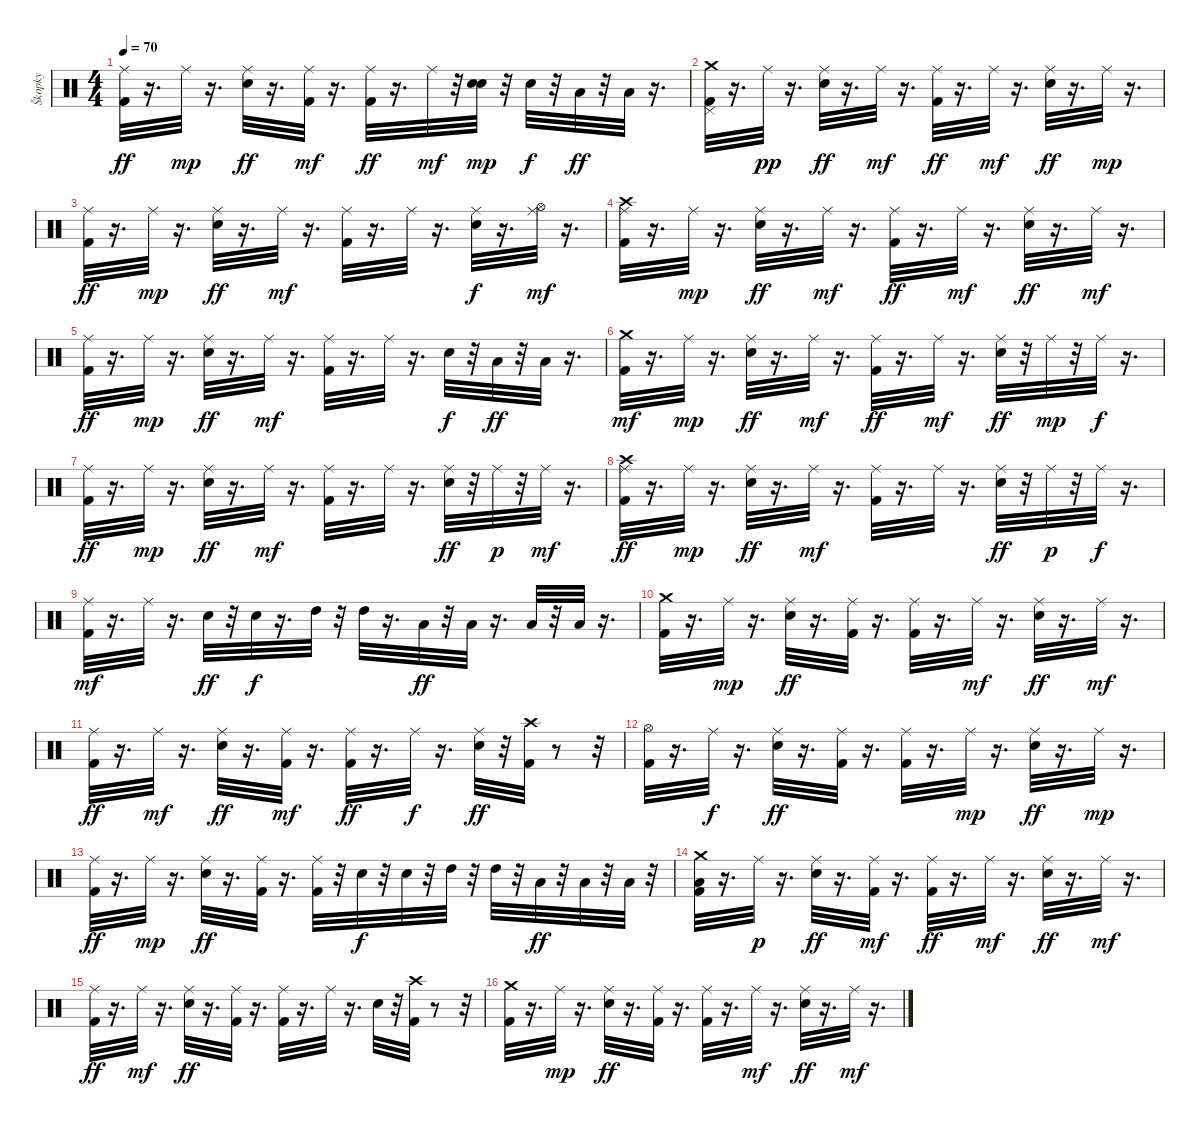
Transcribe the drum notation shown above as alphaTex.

\track ("Škopky" "Škopky") {instrument percussion}
\staff {score}
\articulation defaults
\ts (4 4)
\tempo 70
\clef neutral
\ks c
("Kick (hit) 2" "Ride (middle)").32{dy ff} r.16{d} "Ride (middle)".32{dy mp} r.16{d} ("Snare (hit) 2" "Ride (middle)").32{dy ff} r.16{d} ("Kick (hit) 2" "Ride (middle)").32{dy mf} r.16{d} ("Kick (hit) 2" "Ride (middle)").32{dy ff} r.16{d} "Ride (middle)".32{dy mf} r.32 ("Snare (hit) 2" "Snare (hit) 2").32{dy mp} r.32 "Snare (hit) 2".32{dy f} r.32 "Low Tom (hit)".32{dy ff} r.32 "Low Floor Tom (hit)".32 r.16{d} |
("Pedal Hi-Hat (hit)" "Kick (hit) 2" "Crash medium (hit)").32 r.16{d} "Ride (middle)".32{dy pp} r.16{d} ("Ride (middle)" "Snare (hit) 2").32{dy ff} r.16{d} "Ride (middle)".32{dy mf} r.16{d} ("Kick (hit) 2" "Ride (middle)").32{dy ff} r.16{d} "Ride (middle)".32{dy mf} r.16{d} ("Snare (hit) 2" "Ride (middle)").32{dy ff} r.16{d} "Ride (middle)".32{dy mp} r.16{d} |
("Kick (hit) 2" "Ride (middle)").32{dy ff} r.16{d} "Ride (middle)".32{dy mp} r.16{d} ("Snare (hit) 2" "Ride (middle)").32{dy ff} r.16{d} "Ride (middle)".32{dy mf} r.16{d} ("Kick (hit) 2" "Ride (middle)").32 r.16{d} "Ride (middle)".32 r.16{d} ("Ride (middle)" "Snare (hit) 2").32{dy f} r.16{d} ("Hi-Hat (open)" "Ride (middle)").32{dy mf} r.16{d} |
("Kick (hit) 2" "Crash high (hit)" "Ride (middle)").32 r.16{d} "Ride (middle)".32{dy mp} r.16{d} ("Snare (hit) 2" "Ride (middle)").32{dy ff} r.16{d} "Ride (middle)".32{dy mf} r.16{d} ("Kick (hit) 2" "Ride (middle)").32{dy ff} r.16{d} "Ride (middle)".32{dy mf} r.16{d} ("Snare (hit) 2" "Ride (middle)").32{dy ff} r.16{d} "Ride (middle)".32{dy mf} r.16{d} |
("Kick (hit) 2" "Ride (middle)").32{dy ff} r.16{d} "Ride (middle)".32{dy mp} r.16{d} ("Snare (hit) 2" "Ride (middle)").32{dy ff} r.16{d} "Ride (middle)".32{dy mf} r.16{d} ("Kick (hit) 2" "Ride (middle)").32 r.16{d} "Ride (middle)".32 r.16{d} "Snare (hit) 2".32{dy f} r.32 "Low Tom (hit)".32{dy ff} r.32 "Low Floor Tom (hit)".32 r.16{d} |
("Kick (hit) 2" "Crash medium (hit)").32{dy mf} r.16{d} "Ride (middle)".32{dy mp} r.16{d} ("Snare (hit) 2" "Ride (middle)").32{dy ff} r.16{d} "Ride (middle)".32{dy mf} r.16{d} ("Kick (hit) 2" "Ride (middle)").32{dy ff} r.16{d} "Ride (middle)".32{dy mf} r.16{d} ("Snare (hit) 2" "Ride (middle)").32{dy ff} r.32 "Ride (middle)".32{dy mp} r.32 "Ride (middle)".32{dy f} r.16{d} |
("Kick (hit) 2" "Ride (middle)").32{dy ff} r.16{d} "Ride (middle)".32{dy mp} r.16{d} ("Snare (hit) 2" "Ride (middle)").32{dy ff} r.16{d} "Ride (middle)".32{dy mf} r.16{d} ("Kick (hit) 2" "Ride (middle)").32 r.16{d} "Ride (middle)".32 r.16{d} ("Snare (hit) 2" "Ride (middle)").32{dy ff} r.32 "Ride (middle)".32{dy p} r.32 "Ride (middle)".32{dy mf} r.16{d} |
("Kick (hit) 2" "Ride (middle)" "Crash high (hit)").32{dy ff} r.16{d} "Ride (middle)".32{dy mp} r.16{d} ("Snare (hit) 2" "Ride (middle)").32{dy ff} r.16{d} "Ride (middle)".32{dy mf} r.16{d} ("Kick (hit) 2" "Ride (middle)").32 r.16{d} "Ride (middle)".32 r.16{d} ("Snare (hit) 2" "Ride (middle)").32{dy ff} r.32 "Ride (middle)".32{dy p} r.32 "Ride (middle)".32{dy f} r.16{d} |
("Kick (hit) 2" "Ride (middle)").32{dy mf} r.16{d} "Ride (middle)".32 r.16{d} "Snare (hit) 2".32{dy ff} r.32 "Snare (hit) 2".32{dy f} r.16{d} "High Tom (hit)".32 r.32 "High Tom (hit)".32 r.16{d} "Low Tom (hit)".32{dy ff} r.32 "Low Tom (hit)".32 r.16{d} "Low Floor Tom (hit)".32 r.32 "Low Floor Tom (hit)".32 r.16{d} |
("Kick (hit) 2" "Crash medium (hit)").32 r.16{d} "Ride (middle)".32{dy mp} r.16{d} ("Snare (hit) 2" "Ride (middle)").32{dy ff} r.16{d} ("Kick (hit) 2" "Ride (middle)").32 r.16{d} ("Kick (hit) 2" "Ride (middle)").32 r.16{d} "Ride (middle)".32{dy mf} r.16{d} ("Snare (hit) 2" "Ride (middle)").32{dy ff} r.16{d} "Ride (middle)".32{dy mf} r.16{d} |
("Kick (hit) 2" "Ride (middle)").32{dy ff} r.16{d} "Ride (middle)".32{dy mf} r.16{d} ("Snare (hit) 2" "Ride (middle)").32{dy ff} r.16{d} ("Kick (hit) 2" "Ride (middle)").32{dy mf} r.16{d} ("Kick (hit) 2" "Ride (middle)").32{dy ff} r.16{d} "Ride (middle)".32{dy f} r.16{d} ("Snare (hit) 2" "Ride (middle)").32{dy ff} r.32 ("Kick (hit) 2" "Crash high (hit)").32 r.8 r.32 |
("Kick (hit) 2" "Hi-Hat (open)").32 r.16{d} "Ride (middle)".32{dy f} r.16{d} ("Snare (hit) 2" "Ride (middle)").32{dy ff} r.16{d} ("Kick (hit) 2" "Ride (middle)").32 r.16{d} ("Kick (hit) 2" "Ride (middle)").32 r.16{d} "Ride (middle)".32{dy mp} r.16{d} ("Snare (hit) 2" "Ride (middle)").32{dy ff} r.16{d} "Ride (middle)".32{dy mp} r.16{d} |
("Kick (hit) 2" "Ride (middle)").32{dy ff} r.16{d} "Ride (middle)".32{dy mp} r.16{d} ("Snare (hit) 2" "Ride (middle)").32{dy ff} r.16{d} ("Kick (hit) 2" "Ride (middle)").32 r.16{d} ("Kick (hit) 2" "Ride (middle)").32 r.32 "Snare (hit) 2".32{dy f} r.32 "Snare (hit) 2".32 r.32 "High Tom (hit)".32 r.32 "High Tom (hit)".32 r.32 "Low Tom (hit)".32{dy ff} r.32 "Low Tom (hit)".32 r.32 "Low Floor Tom (hit)".32 r.32 |
("Low Floor Tom (hit)" "Kick (hit) 2" "Crash medium (hit)").32 r.16{d} "Ride (middle)".32{dy p} r.16{d} ("Snare (hit) 2" "Ride (middle)").32{dy ff} r.16{d} ("Kick (hit) 2" "Ride (middle)").32{dy mf} r.16{d} ("Kick (hit) 2" "Ride (middle)").32{dy ff} r.16{d} "Ride (middle)".32{dy mf} r.16{d} ("Snare (hit) 2" "Ride (middle)").32{dy ff} r.16{d} "Ride (middle)".32{dy mf} r.16{d} |
("Kick (hit) 2" "Ride (middle)").32{dy ff} r.16{d} "Ride (middle)".32{dy mf} r.16{d} ("Snare (hit) 2" "Ride (middle)").32{dy ff} r.16{d} ("Kick (hit) 2" "Ride (middle)").32 r.16{d} ("Kick (hit) 2" "Ride (middle)").32 r.16{d} "Ride (middle)".32 r.16{d} "Snare (hit) 2".32 r.32 ("Kick (hit) 2" "Crash high (hit)").32 r.8 r.32 |
("Kick (hit) 2" "Crash medium (hit)").32 r.16{d} "Ride (middle)".32{dy mp} r.16{d} ("Snare (hit) 2" "Ride (middle)").32{dy ff} r.16{d} ("Kick (hit) 2" "Ride (middle)").32 r.16{d} ("Kick (hit) 2" "Ride (middle)").32 r.16{d} "Ride (middle)".32{dy mf} r.16{d} ("Snare (hit) 2" "Ride (middle)").32{dy ff} r.16{d} "Ride (middle)".32{dy mf} r.16{d}
